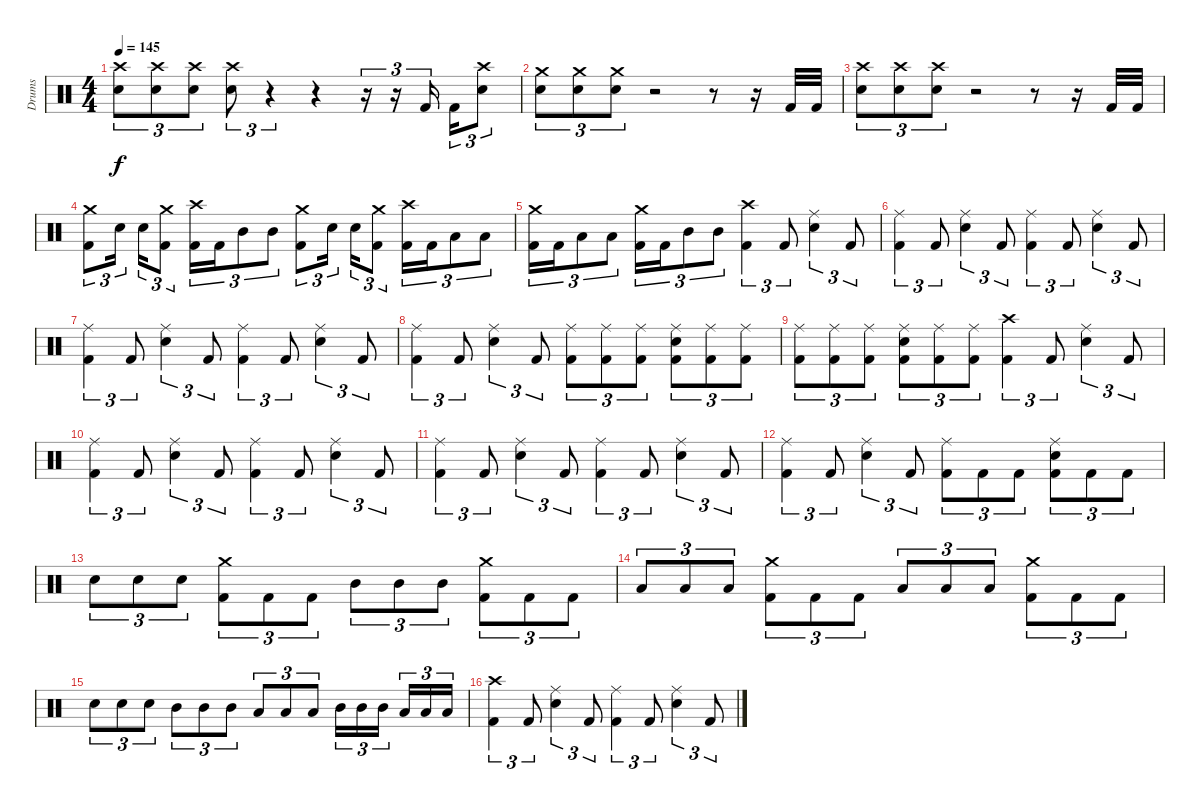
\track ("Drums" "Drums") {instrument percussion}
\staff {score}
\articulation defaults
\ts (4 4)
\tempo 145
\clef neutral
\ks c
("Crash high (hit)" "Electric Snare (hit)").8{tu (3 2) dy f} ("Crash high (hit)" "Electric Snare (hit)").8{tu (3 2)} ("Crash high (hit)" "Electric Snare (hit)").8{tu (3 2)} ("Crash high (hit)" "Electric Snare (hit)").8{tu (3 2)} r.4{tu (3 2)} r.4 r.16{tu (3 2)} r.16{tu (3 2)} "Kick (hit) 2".16{tu (3 2)} "Kick (hit) 2".16{tu (3 2)} ("Crash high (hit)" "Electric Snare (hit)").8{tu (3 2)} |
("Crash medium (hit)" "Electric Snare (hit)").8{tu (3 2)} ("Crash medium (hit)" "Electric Snare (hit)").8{tu (3 2)} ("Crash medium (hit)" "Electric Snare (hit)").8{tu (3 2)} r.2 r.8 r.16 "Kick (hit) 2".32 "Kick (hit) 2".32 |
("Crash high (hit)" "Electric Snare (hit)").8{tu (3 2)} ("Crash high (hit)" "Electric Snare (hit)").8{tu (3 2)} ("Crash high (hit)" "Electric Snare (hit)").8{tu (3 2)} r.2 r.8 r.16 "Kick (hit) 2".32 "Kick (hit) 2".32 |
("Crash medium (hit)" "Kick (hit) 2").8{tu (3 2)} "Electric Snare (hit)".16{tu (3 2)} "Electric Snare (hit)".16{tu (3 2)} ("Crash medium (hit)" "Kick (hit) 2").8{tu (3 2)} ("Crash high (hit)" "Kick (hit) 2").16{tu (3 2)} "Kick (hit) 2".16{tu (3 2)} "Mid Tom (hit)".8{tu (3 2)} "Mid Tom (hit)".8{tu (3 2)} ("Crash medium (hit)" "Kick (hit) 2").8{tu (3 2)} "Electric Snare (hit)".16{tu (3 2)} "Electric Snare (hit)".16{tu (3 2)} ("Crash medium (hit)" "Kick (hit) 2").8{tu (3 2)} ("Crash high (hit)" "Kick (hit) 2").16{tu (3 2)} "Kick (hit) 2".16{tu (3 2)} "Low Tom (hit)".8{tu (3 2)} "Low Tom (hit)".8{tu (3 2)} |
("Crash medium (hit)" "Kick (hit) 2").16{tu (3 2)} "Kick (hit) 2".16{tu (3 2)} "Low Tom (hit)".8{tu (3 2)} "Low Tom (hit)".8{tu (3 2)} ("Crash medium (hit)" "Kick (hit) 2").16{tu (3 2)} "Kick (hit) 2".16{tu (3 2)} "Mid Tom (hit)".8{tu (3 2)} "Mid Tom (hit)".8{tu (3 2)} ("Crash high (hit)" "Kick (hit) 2").4{tu (3 2)} "Kick (hit) 2".8{tu (3 2)} ("Ride (middle)" "Electric Snare (hit)").4{tu (3 2)} "Kick (hit) 2".8{tu (3 2)} |
("Ride (middle)" "Kick (hit) 2").4{tu (3 2)} "Kick (hit) 2".8{tu (3 2)} ("Ride (middle)" "Electric Snare (hit)").4{tu (3 2)} "Kick (hit) 2".8{tu (3 2)} ("Ride (middle)" "Kick (hit) 2").4{tu (3 2)} "Kick (hit) 2".8{tu (3 2)} ("Ride (middle)" "Electric Snare (hit)").4{tu (3 2)} "Kick (hit) 2".8{tu (3 2)} |
("Ride (middle)" "Kick (hit) 2").4{tu (3 2)} "Kick (hit) 2".8{tu (3 2)} ("Ride (middle)" "Electric Snare (hit)").4{tu (3 2)} "Kick (hit) 2".8{tu (3 2)} ("Ride (middle)" "Kick (hit) 2").4{tu (3 2)} "Kick (hit) 2".8{tu (3 2)} ("Ride (middle)" "Electric Snare (hit)").4{tu (3 2)} "Kick (hit) 2".8{tu (3 2)} |
("Ride (middle)" "Kick (hit) 2").4{tu (3 2)} "Kick (hit) 2".8{tu (3 2)} ("Ride (middle)" "Electric Snare (hit)").4{tu (3 2)} "Kick (hit) 2".8{tu (3 2)} ("Ride (middle)" "Kick (hit) 2").8{tu (3 2)} ("Ride (middle)" "Kick (hit) 2").8{tu (3 2)} ("Ride (middle)" "Kick (hit) 2").8{tu (3 2)} ("Ride (middle)" "Electric Snare (hit)" "Kick (hit) 2").8{tu (3 2)} ("Ride (middle)" "Kick (hit) 2").8{tu (3 2)} ("Ride (middle)" "Kick (hit) 2").8{tu (3 2)} |
("Ride (middle)" "Kick (hit) 2").8{tu (3 2)} ("Ride (middle)" "Kick (hit) 2").8{tu (3 2)} ("Ride (middle)" "Kick (hit) 2").8{tu (3 2)} ("Ride (middle)" "Electric Snare (hit)" "Kick (hit) 2").8{tu (3 2)} ("Ride (middle)" "Kick (hit) 2").8{tu (3 2)} ("Ride (middle)" "Kick (hit) 2").8{tu (3 2)} ("Crash high (hit)" "Kick (hit) 2").4{tu (3 2)} "Kick (hit) 2".8{tu (3 2)} ("Ride (middle)" "Electric Snare (hit)").4{tu (3 2)} "Kick (hit) 2".8{tu (3 2)} |
("Ride (middle)" "Kick (hit) 2").4{tu (3 2)} "Kick (hit) 2".8{tu (3 2)} ("Ride (middle)" "Electric Snare (hit)").4{tu (3 2)} "Kick (hit) 2".8{tu (3 2)} ("Ride (middle)" "Kick (hit) 2").4{tu (3 2)} "Kick (hit) 2".8{tu (3 2)} ("Ride (middle)" "Electric Snare (hit)").4{tu (3 2)} "Kick (hit) 2".8{tu (3 2)} |
("Ride (middle)" "Kick (hit) 2").4{tu (3 2)} "Kick (hit) 2".8{tu (3 2)} ("Ride (middle)" "Electric Snare (hit)").4{tu (3 2)} "Kick (hit) 2".8{tu (3 2)} ("Ride (middle)" "Kick (hit) 2").4{tu (3 2)} "Kick (hit) 2".8{tu (3 2)} ("Ride (middle)" "Electric Snare (hit)").4{tu (3 2)} "Kick (hit) 2".8{tu (3 2)} |
("Ride (middle)" "Kick (hit) 2").4{tu (3 2)} "Kick (hit) 2".8{tu (3 2)} ("Ride (middle)" "Electric Snare (hit)").4{tu (3 2)} "Kick (hit) 2".8{tu (3 2)} ("Ride (middle)" "Kick (hit) 2").8{tu (3 2)} "Kick (hit) 2".8{tu (3 2)} "Kick (hit) 2".8{tu (3 2)} ("Ride (middle)" "Electric Snare (hit)" "Kick (hit) 2").8{tu (3 2)} "Kick (hit) 2".8{tu (3 2)} "Kick (hit) 2".8{tu (3 2)} |
"Electric Snare (hit)".8{tu (3 2)} "Electric Snare (hit)".8{tu (3 2)} "Electric Snare (hit)".8{tu (3 2)} ("Crash medium (hit)" "Kick (hit) 2").8{tu (3 2)} "Kick (hit) 2".8{tu (3 2)} "Kick (hit) 2".8{tu (3 2)} "Mid Tom (hit)".8{tu (3 2)} "Mid Tom (hit)".8{tu (3 2)} "Mid Tom (hit)".8{tu (3 2)} ("Crash medium (hit)" "Kick (hit) 2").8{tu (3 2)} "Kick (hit) 2".8{tu (3 2)} "Kick (hit) 2".8{tu (3 2)} |
"Low Tom (hit)".8{tu (3 2)} "Low Tom (hit)".8{tu (3 2)} "Low Tom (hit)".8{tu (3 2)} ("Crash medium (hit)" "Kick (hit) 2").8{tu (3 2)} "Kick (hit) 2".8{tu (3 2)} "Kick (hit) 2".8{tu (3 2)} "Low Floor Tom (hit)".8{tu (3 2)} "Low Floor Tom (hit)".8{tu (3 2)} "Low Floor Tom (hit)".8{tu (3 2)} ("Crash medium (hit)" "Kick (hit) 2").8{tu (3 2)} "Kick (hit) 2".8{tu (3 2)} "Kick (hit) 2".8{tu (3 2)} |
"Electric Snare (hit)".8{tu (3 2)} "Electric Snare (hit)".8{tu (3 2)} "Electric Snare (hit)".8{tu (3 2)} "Mid Tom (hit)".8{tu (3 2)} "Mid Tom (hit)".8{tu (3 2)} "Mid Tom (hit)".8{tu (3 2)} "Low Tom (hit)".8{tu (3 2)} "Low Tom (hit)".8{tu (3 2)} "Low Tom (hit)".8{tu (3 2)} "Mid Tom (hit)".16{tu (3 2)} "Mid Tom (hit)".16{tu (3 2)} "Mid Tom (hit)".16{tu (3 2)} "Low Tom (hit)".16{tu (3 2)} "Low Tom (hit)".16{tu (3 2)} "Low Tom (hit)".16{tu (3 2)} |
("Crash high (hit)" "Kick (hit) 2").4{tu (3 2)} "Kick (hit) 2".8{tu (3 2)} ("Ride (middle)" "Electric Snare (hit)").4{tu (3 2)} "Kick (hit) 2".8{tu (3 2)} ("Ride (middle)" "Kick (hit) 2").4{tu (3 2)} "Kick (hit) 2".8{tu (3 2)} ("Ride (middle)" "Electric Snare (hit)").4{tu (3 2)} "Kick (hit) 2".8{tu (3 2)}
